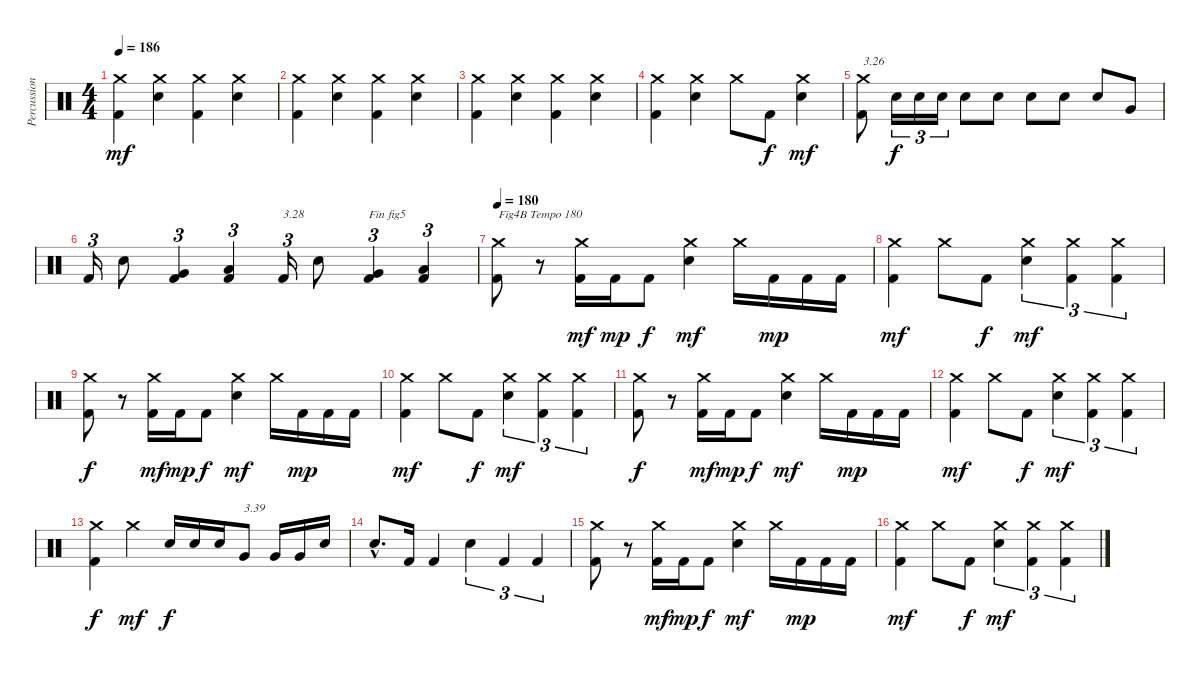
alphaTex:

\track ("Percussions" "Percussion") {instrument percussion}
\staff {score}
\articulation defaults
\ts (4 4)
\tempo 186
\clef neutral
\ks c
("Kick (hit) 2" "Crash medium (hit)").4{dy mf} ("Electric Snare (hit)" "Crash medium (hit)").4 ("Kick (hit) 2" "Crash medium (hit)").4 ("Electric Snare (hit)" "Crash medium (hit)").4 |
("Kick (hit) 2" "Crash medium (hit)").4 ("Electric Snare (hit)" "Crash medium (hit)").4 ("Kick (hit) 2" "Crash medium (hit)").4 ("Electric Snare (hit)" "Crash medium (hit)").4 |
("Kick (hit) 2" "Crash medium (hit)").4 ("Electric Snare (hit)" "Crash medium (hit)").4 ("Kick (hit) 2" "Crash medium (hit)").4 ("Electric Snare (hit)" "Crash medium (hit)").4 |
("Kick (hit) 2" "Crash medium (hit)").4 ("Electric Snare (hit)" "Crash medium (hit)").4 "Crash medium (hit)".8 "Kick (hit) 2".8{dy f} ("Electric Snare (hit)" "Crash medium (hit)").4{dy mf} |
("Kick (hit) 2" "Crash medium (hit)").8{txt "3.26"} "Electric Snare (hit)".16{tu (3 2) dy f} "Electric Snare (hit)".16{tu (3 2)} "Electric Snare (hit)".16{tu (3 2)} "Electric Snare (hit)".8 "Electric Snare (hit)".8 "Electric Snare (hit)".8 "Electric Snare (hit)".8 "Electric Snare (hit)".8 "Very Low Tom (hit)".8 |
"Kick (hit) 2".16{tu (3 2)} "Electric Snare (hit)".8 ("Kick (hit) 2" "Very Low Tom (hit)").4{tu (3 2)} ("Kick (hit) 2" "Low Floor Tom (hit)").4{tu (3 2)} "Kick (hit) 2".16{tu (3 2) txt "3.28"} "Electric Snare (hit)".8 ("Kick (hit) 2" "Very Low Tom (hit)").4{tu (3 2) txt "Fin fig5"} ("Kick (hit) 2" "Low Floor Tom (hit)").4{tu (3 2)} |
\tempo 180
("Kick (hit) 2" "Crash medium (hit)").8{txt "Fig4B Tempo 180"} r.8 ("Kick (hit) 2" "Crash medium (hit)").16{dy mf} "Kick (hit) 2".16{dy mp} "Kick (hit) 2".8{dy f} ("Electric Snare (hit)" "Crash medium (hit)").4{dy mf} "Crash medium (hit)".16 "Kick (hit) 2".16{dy mp} "Kick (hit) 2".16 "Kick (hit) 2".16 |
("Kick (hit) 2" "Crash medium (hit)").4{dy mf} "Crash medium (hit)".8 "Kick (hit) 2".8{dy f} ("Electric Snare (hit)" "Crash medium (hit)").4{tu (3 2) dy mf} ("Kick (hit) 2" "Crash medium (hit)").4{tu (3 2)} ("Kick (hit) 2" "Crash medium (hit)").4{tu (3 2)} |
("Kick (hit) 2" "Crash medium (hit)").8{dy f} r.8 ("Kick (hit) 2" "Crash medium (hit)").16{dy mf} "Kick (hit) 2".16{dy mp} "Kick (hit) 2".8{dy f} ("Electric Snare (hit)" "Crash medium (hit)").4{dy mf} "Crash medium (hit)".16 "Kick (hit) 2".16{dy mp} "Kick (hit) 2".16 "Kick (hit) 2".16 |
("Kick (hit) 2" "Crash medium (hit)").4{dy mf} "Crash medium (hit)".8 "Kick (hit) 2".8{dy f} ("Electric Snare (hit)" "Crash medium (hit)").4{tu (3 2) dy mf} ("Kick (hit) 2" "Crash medium (hit)").4{tu (3 2)} ("Kick (hit) 2" "Crash medium (hit)").4{tu (3 2)} |
("Kick (hit) 2" "Crash medium (hit)").8{dy f} r.8 ("Kick (hit) 2" "Crash medium (hit)").16{dy mf} "Kick (hit) 2".16{dy mp} "Kick (hit) 2".8{dy f} ("Electric Snare (hit)" "Crash medium (hit)").4{dy mf} "Crash medium (hit)".16 "Kick (hit) 2".16{dy mp} "Kick (hit) 2".16 "Kick (hit) 2".16 |
("Kick (hit) 2" "Crash medium (hit)").4{dy mf} "Crash medium (hit)".8 "Kick (hit) 2".8{dy f} ("Electric Snare (hit)" "Crash medium (hit)").4{tu (3 2) dy mf} ("Kick (hit) 2" "Crash medium (hit)").4{tu (3 2)} ("Kick (hit) 2" "Crash medium (hit)").4{tu (3 2)} |
("Kick (hit) 2" "Crash medium (hit)").4{dy f} "Crash medium (hit)".4{dy mf} "Electric Snare (hit)".16{dy f} "Electric Snare (hit)".16 "Electric Snare (hit)".16 "Very Low Tom (hit)".8{txt "3.39"} "Very Low Tom (hit)".16 "Very Low Tom (hit)".16 "Electric Snare (hit)".16 |
"Electric Snare (hit)"{hac}.8{d} "Kick (hit) 2".16 "Kick (hit) 2".4 "Electric Snare (hit)".4{tu (3 2)} "Kick (hit) 2".4{tu (3 2)} "Kick (hit) 2".4{tu (3 2)} |
("Kick (hit) 2" "Crash medium (hit)").8 r.8 ("Kick (hit) 2" "Crash medium (hit)").16{dy mf} "Kick (hit) 2".16{dy mp} "Kick (hit) 2".8{dy f} ("Electric Snare (hit)" "Crash medium (hit)").4{dy mf} "Crash medium (hit)".16 "Kick (hit) 2".16{dy mp} "Kick (hit) 2".16 "Kick (hit) 2".16 |
("Kick (hit) 2" "Crash medium (hit)").4{dy mf} "Crash medium (hit)".8 "Kick (hit) 2".8{dy f} ("Electric Snare (hit)" "Crash medium (hit)").4{tu (3 2) dy mf} ("Kick (hit) 2" "Crash medium (hit)").4{tu (3 2)} ("Kick (hit) 2" "Crash medium (hit)").4{tu (3 2)}
